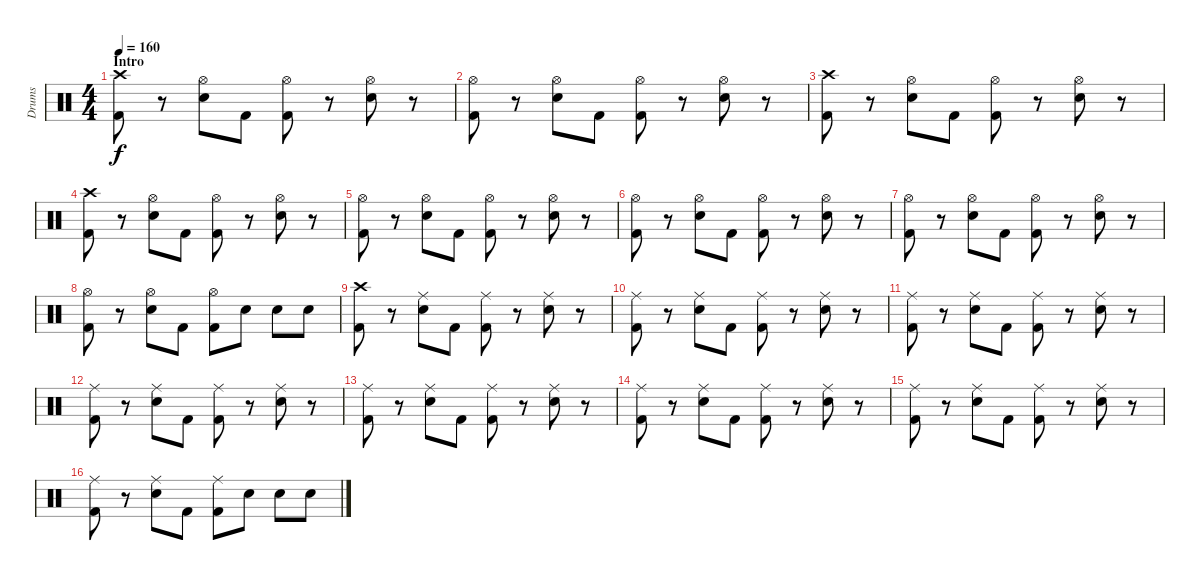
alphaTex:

\track ("Drums" "Drums") {instrument percussion}
\staff {score}
\articulation defaults
\ts (4 4)
\section ("" "Intro")
\tempo 160
\clef neutral
\ks c
("Kick (hit) 2" "Crash high (hit)").8{dy f} r.8 ("Snare (hit) 2" "Hi-Hat (open)").8 "Kick (hit) 2".8 ("Kick (hit) 2" "Hi-Hat (open)").8 r.8 ("Snare (hit) 2" "Hi-Hat (open)").8 r.8 |
("Kick (hit) 2" "Hi-Hat (open)").8 r.8 ("Snare (hit) 2" "Hi-Hat (open)").8 "Kick (hit) 2".8 ("Kick (hit) 2" "Hi-Hat (open)").8 r.8 ("Snare (hit) 2" "Hi-Hat (open)").8 r.8 |
("Kick (hit) 2" "Crash high (hit)").8 r.8 ("Snare (hit) 2" "Hi-Hat (open)").8 "Kick (hit) 2".8 ("Kick (hit) 2" "Hi-Hat (open)").8 r.8 ("Snare (hit) 2" "Hi-Hat (open)").8 r.8 |
("Kick (hit) 2" "Crash high (hit)").8 r.8 ("Snare (hit) 2" "Hi-Hat (open)").8 "Kick (hit) 2".8 ("Kick (hit) 2" "Hi-Hat (open)").8 r.8 ("Snare (hit) 2" "Hi-Hat (open)").8 r.8 |
("Kick (hit) 2" "Hi-Hat (open)").8 r.8 ("Snare (hit) 2" "Hi-Hat (open)").8 "Kick (hit) 2".8 ("Kick (hit) 2" "Hi-Hat (open)").8 r.8 ("Snare (hit) 2" "Hi-Hat (open)").8 r.8 |
("Kick (hit) 2" "Hi-Hat (open)").8 r.8 ("Snare (hit) 2" "Hi-Hat (open)").8 "Kick (hit) 2".8 ("Kick (hit) 2" "Hi-Hat (open)").8 r.8 ("Snare (hit) 2" "Hi-Hat (open)").8 r.8 |
("Kick (hit) 2" "Hi-Hat (open)").8 r.8 ("Snare (hit) 2" "Hi-Hat (open)").8 "Kick (hit) 2".8 ("Kick (hit) 2" "Hi-Hat (open)").8 r.8 ("Snare (hit) 2" "Hi-Hat (open)").8 r.8 |
("Kick (hit) 2" "Hi-Hat (open)").8 r.8 ("Snare (hit) 2" "Hi-Hat (open)").8 "Kick (hit) 2".8 ("Kick (hit) 2" "Hi-Hat (open)").8 "Snare (hit) 2".8 "Snare (hit) 2".8 "Snare (hit) 2".8 |
("Kick (hit) 2" "Crash high (hit)").8 r.8 ("Snare (hit) 2" "Ride (middle)").8 "Kick (hit) 2".8 ("Kick (hit) 2" "Ride (middle)").8 r.8 ("Snare (hit) 2" "Ride (middle)").8 r.8 |
("Kick (hit) 2" "Ride (middle)").8 r.8 ("Snare (hit) 2" "Ride (middle)").8 "Kick (hit) 2".8 ("Kick (hit) 2" "Ride (middle)").8 r.8 ("Snare (hit) 2" "Ride (middle)").8 r.8 |
("Kick (hit) 2" "Ride (middle)").8 r.8 ("Snare (hit) 2" "Ride (middle)").8 "Kick (hit) 2".8 ("Kick (hit) 2" "Ride (middle)").8 r.8 ("Snare (hit) 2" "Ride (middle)").8 r.8 |
("Kick (hit) 2" "Ride (middle)").8 r.8 ("Snare (hit) 2" "Ride (middle)").8 "Kick (hit) 2".8 ("Kick (hit) 2" "Ride (middle)").8 r.8 ("Snare (hit) 2" "Ride (middle)").8 r.8 |
("Kick (hit) 2" "Ride (middle)").8 r.8 ("Snare (hit) 2" "Ride (middle)").8 "Kick (hit) 2".8 ("Kick (hit) 2" "Ride (middle)").8 r.8 ("Snare (hit) 2" "Ride (middle)").8 r.8 |
("Kick (hit) 2" "Ride (middle)").8 r.8 ("Snare (hit) 2" "Ride (middle)").8 "Kick (hit) 2".8 ("Kick (hit) 2" "Ride (middle)").8 r.8 ("Snare (hit) 2" "Ride (middle)").8 r.8 |
("Kick (hit) 2" "Ride (middle)").8 r.8 ("Snare (hit) 2" "Ride (middle)").8 "Kick (hit) 2".8 ("Kick (hit) 2" "Ride (middle)").8 r.8 ("Snare (hit) 2" "Ride (middle)").8 r.8 |
("Kick (hit) 2" "Ride (middle)").8 r.8 ("Snare (hit) 2" "Ride (middle)").8 "Kick (hit) 2".8 ("Kick (hit) 2" "Ride (middle)").8 "Snare (hit) 2".8 "Snare (hit) 2".8 "Snare (hit) 2".8
